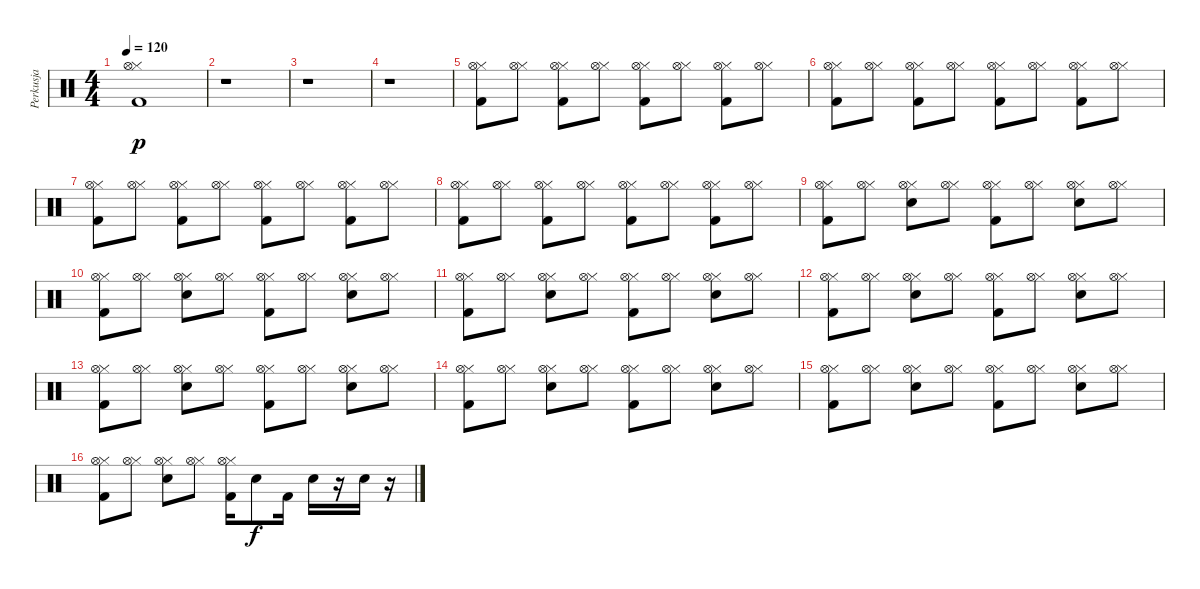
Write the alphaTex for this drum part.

\track ("Perkusja" "Perkusja") {instrument percussion}
\staff {score}
\articulation defaults
\ts (4 4)
\tempo 120
\clef neutral
\ks c
("Kick (hit) 2" "Hi-Hat (closed)" "Hi-Hat (open)").1{dy p} |
r.1 |
r.1 |
r.1 |
("Kick (hit) 2" "Hi-Hat (closed)" "Hi-Hat (open)").8 ("Hi-Hat (closed)" "Hi-Hat (open)").8 ("Kick (hit) 2" "Hi-Hat (closed)" "Hi-Hat (open)").8 ("Hi-Hat (closed)" "Hi-Hat (open)").8 ("Kick (hit) 2" "Hi-Hat (closed)" "Hi-Hat (open)").8 ("Hi-Hat (closed)" "Hi-Hat (open)").8 ("Kick (hit) 2" "Hi-Hat (closed)" "Hi-Hat (open)").8 ("Hi-Hat (closed)" "Hi-Hat (open)").8 |
("Kick (hit) 2" "Hi-Hat (closed)" "Hi-Hat (open)").8 ("Hi-Hat (closed)" "Hi-Hat (open)").8 ("Kick (hit) 2" "Hi-Hat (closed)" "Hi-Hat (open)").8 ("Hi-Hat (closed)" "Hi-Hat (open)").8 ("Kick (hit) 2" "Hi-Hat (closed)" "Hi-Hat (open)").8 ("Hi-Hat (closed)" "Hi-Hat (open)").8 ("Kick (hit) 2" "Hi-Hat (closed)" "Hi-Hat (open)").8 ("Hi-Hat (closed)" "Hi-Hat (open)").8 |
("Kick (hit) 2" "Hi-Hat (closed)" "Hi-Hat (open)").8 ("Hi-Hat (closed)" "Hi-Hat (open)").8 ("Kick (hit) 2" "Hi-Hat (closed)" "Hi-Hat (open)").8 ("Hi-Hat (closed)" "Hi-Hat (open)").8 ("Kick (hit) 2" "Hi-Hat (closed)" "Hi-Hat (open)").8 ("Hi-Hat (closed)" "Hi-Hat (open)").8 ("Kick (hit) 2" "Hi-Hat (closed)" "Hi-Hat (open)").8 ("Hi-Hat (closed)" "Hi-Hat (open)").8 |
("Kick (hit) 2" "Hi-Hat (closed)" "Hi-Hat (open)").8 ("Hi-Hat (closed)" "Hi-Hat (open)").8 ("Kick (hit) 2" "Hi-Hat (closed)" "Hi-Hat (open)").8 ("Hi-Hat (closed)" "Hi-Hat (open)").8 ("Kick (hit) 2" "Hi-Hat (closed)" "Hi-Hat (open)").8 ("Hi-Hat (closed)" "Hi-Hat (open)").8 ("Kick (hit) 2" "Hi-Hat (closed)" "Hi-Hat (open)").8 ("Hi-Hat (closed)" "Hi-Hat (open)").8 |
("Kick (hit) 2" "Hi-Hat (closed)" "Hi-Hat (open)").8 ("Hi-Hat (closed)" "Hi-Hat (open)").8 ("Electric Snare (hit)" "Hi-Hat (closed)" "Hi-Hat (open)").8 ("Hi-Hat (closed)" "Hi-Hat (open)").8 ("Kick (hit) 2" "Hi-Hat (closed)" "Hi-Hat (open)").8 ("Hi-Hat (closed)" "Hi-Hat (open)").8 ("Electric Snare (hit)" "Hi-Hat (closed)" "Hi-Hat (open)").8 ("Hi-Hat (closed)" "Hi-Hat (open)").8 |
("Kick (hit) 2" "Hi-Hat (closed)" "Hi-Hat (open)").8 ("Hi-Hat (closed)" "Hi-Hat (open)").8 ("Electric Snare (hit)" "Hi-Hat (closed)" "Hi-Hat (open)").8 ("Hi-Hat (closed)" "Hi-Hat (open)").8 ("Kick (hit) 2" "Hi-Hat (closed)" "Hi-Hat (open)").8 ("Hi-Hat (closed)" "Hi-Hat (open)").8 ("Electric Snare (hit)" "Hi-Hat (closed)" "Hi-Hat (open)").8 ("Hi-Hat (closed)" "Hi-Hat (open)").8 |
("Kick (hit) 2" "Hi-Hat (closed)" "Hi-Hat (open)").8 ("Hi-Hat (closed)" "Hi-Hat (open)").8 ("Electric Snare (hit)" "Hi-Hat (closed)" "Hi-Hat (open)").8 ("Hi-Hat (closed)" "Hi-Hat (open)").8 ("Kick (hit) 2" "Hi-Hat (closed)" "Hi-Hat (open)").8 ("Hi-Hat (closed)" "Hi-Hat (open)").8 ("Electric Snare (hit)" "Hi-Hat (closed)" "Hi-Hat (open)").8 ("Hi-Hat (closed)" "Hi-Hat (open)").8 |
("Kick (hit) 2" "Hi-Hat (closed)" "Hi-Hat (open)").8 ("Hi-Hat (closed)" "Hi-Hat (open)").8 ("Electric Snare (hit)" "Hi-Hat (closed)" "Hi-Hat (open)").8 ("Hi-Hat (closed)" "Hi-Hat (open)").8 ("Kick (hit) 2" "Hi-Hat (closed)" "Hi-Hat (open)").8 ("Hi-Hat (closed)" "Hi-Hat (open)").8 ("Electric Snare (hit)" "Hi-Hat (closed)" "Hi-Hat (open)").8 ("Hi-Hat (closed)" "Hi-Hat (open)").8 |
("Kick (hit) 2" "Hi-Hat (closed)" "Hi-Hat (open)").8 ("Hi-Hat (closed)" "Hi-Hat (open)").8 ("Electric Snare (hit)" "Hi-Hat (closed)" "Hi-Hat (open)").8 ("Hi-Hat (closed)" "Hi-Hat (open)").8 ("Kick (hit) 2" "Hi-Hat (closed)" "Hi-Hat (open)").8 ("Hi-Hat (closed)" "Hi-Hat (open)").8 ("Electric Snare (hit)" "Hi-Hat (closed)" "Hi-Hat (open)").8 ("Hi-Hat (closed)" "Hi-Hat (open)").8 |
("Kick (hit) 2" "Hi-Hat (closed)" "Hi-Hat (open)").8 ("Hi-Hat (closed)" "Hi-Hat (open)").8 ("Electric Snare (hit)" "Hi-Hat (closed)" "Hi-Hat (open)").8 ("Hi-Hat (closed)" "Hi-Hat (open)").8 ("Kick (hit) 2" "Hi-Hat (closed)" "Hi-Hat (open)").8 ("Hi-Hat (closed)" "Hi-Hat (open)").8 ("Electric Snare (hit)" "Hi-Hat (closed)" "Hi-Hat (open)").8 ("Hi-Hat (closed)" "Hi-Hat (open)").8 |
("Kick (hit) 2" "Hi-Hat (closed)" "Hi-Hat (open)").8 ("Hi-Hat (closed)" "Hi-Hat (open)").8 ("Electric Snare (hit)" "Hi-Hat (closed)" "Hi-Hat (open)").8 ("Hi-Hat (closed)" "Hi-Hat (open)").8 ("Kick (hit) 2" "Hi-Hat (closed)" "Hi-Hat (open)").8 ("Hi-Hat (closed)" "Hi-Hat (open)").8 ("Electric Snare (hit)" "Hi-Hat (closed)" "Hi-Hat (open)").8 ("Hi-Hat (closed)" "Hi-Hat (open)").8 |
("Kick (hit) 2" "Hi-Hat (closed)" "Hi-Hat (open)").8 ("Hi-Hat (closed)" "Hi-Hat (open)").8 ("Electric Snare (hit)" "Hi-Hat (closed)" "Hi-Hat (open)").8 ("Hi-Hat (closed)" "Hi-Hat (open)").8 ("Kick (hit) 2" "Hi-Hat (closed)" "Hi-Hat (open)").16 "Electric Snare (hit)".8{dy f} "Kick (hit) 2".16 "Electric Snare (hit)".16 r.16 "Electric Snare (hit)".16 r.16
